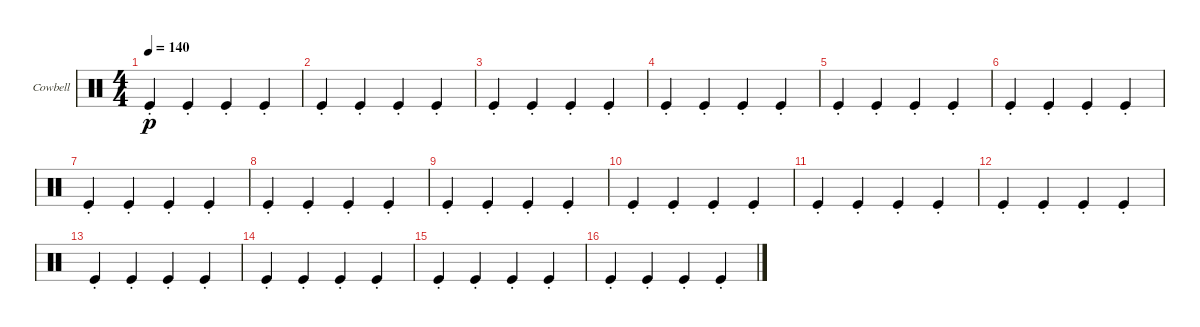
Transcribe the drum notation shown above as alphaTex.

\defaultSystemsLayout 4
\bracketExtendMode groupsimilarinstruments
\firstSystemTrackNameOrientation horizontal
\otherSystemsTrackNameOrientation horizontal
\track ("Cowbell" "Cowbell") {instrument percussion}
\staff {score}
\articulation defaults
\ts (4 4)
\tempo 140
\clef neutral
\scale
0.25
\ks c "Kick (hit)"{st}.4{dy p} "Kick (hit)"{st}.4 "Kick (hit)"{st}.4 "Kick (hit)"{st}.4
|
\scale
0.25 "Kick (hit)"{st}.4 "Kick (hit)"{st}.4 "Kick (hit)"{st}.4 "Kick (hit)"{st}.4 |
\scale
0.25 "Kick (hit)"{st}.4 "Kick (hit)"{st}.4 "Kick (hit)"{st}.4 "Kick (hit)"{st}.4 |
\scale
0.25 "Kick (hit)"{st}.4 "Kick (hit)"{st}.4 "Kick (hit)"{st}.4 "Kick (hit)"{st}.4 |
\scale
0.25 "Kick (hit)"{st}.4 "Kick (hit)"{st}.4 "Kick (hit)"{st}.4 "Kick (hit)"{st}.4 |
\scale
0.25 "Kick (hit)"{st}.4 "Kick (hit)"{st}.4 "Kick (hit)"{st}.4 "Kick (hit)"{st}.4 |
\scale
0.25 "Kick (hit)"{st}.4 "Kick (hit)"{st}.4 "Kick (hit)"{st}.4 "Kick (hit)"{st}.4 |
\scale
0.25 "Kick (hit)"{st}.4 "Kick (hit)"{st}.4 "Kick (hit)"{st}.4 "Kick (hit)"{st}.4 |
\scale
0.25 "Kick (hit)"{st}.4 "Kick (hit)"{st}.4 "Kick (hit)"{st}.4 "Kick (hit)"{st}.4 |
\scale
0.25 "Kick (hit)"{st}.4 "Kick (hit)"{st}.4 "Kick (hit)"{st}.4 "Kick (hit)"{st}.4 |
\scale
0.25 "Kick (hit)"{st}.4 "Kick (hit)"{st}.4 "Kick (hit)"{st}.4 "Kick (hit)"{st}.4 |
\scale
0.25 "Kick (hit)"{st}.4 "Kick (hit)"{st}.4 "Kick (hit)"{st}.4 "Kick (hit)"{st}.4 |
\scale
0.25 "Kick (hit)"{st}.4 "Kick (hit)"{st}.4 "Kick (hit)"{st}.4 "Kick (hit)"{st}.4 |
\scale
0.25 "Kick (hit)"{st}.4 "Kick (hit)"{st}.4 "Kick (hit)"{st}.4 "Kick (hit)"{st}.4 |
\scale
0.25 "Kick (hit)"{st}.4 "Kick (hit)"{st}.4 "Kick (hit)"{st}.4 "Kick (hit)"{st}.4 |
\scale
0.25 "Kick (hit)"{st}.4 "Kick (hit)"{st}.4 "Kick (hit)"{st}.4 "Kick (hit)"{st}.4
